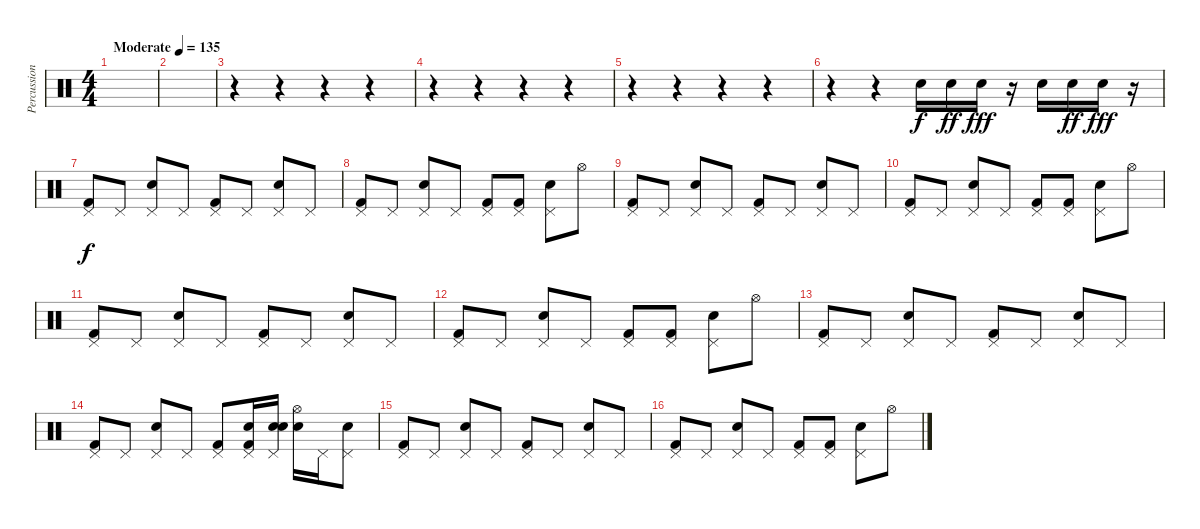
\track ("Percussion" "Percussion") {instrument percussion}
\staff {score}
\articulation defaults
\ts (4 4)
\tempo (135 "Moderate")
\clef neutral
\ks c
|
|
r.4 r.4 r.4 r.4 |
r.4 r.4 r.4 r.4 |
r.4 r.4 r.4 r.4 |
r.4 r.4 "Electric Snare (hit)".16 "Electric Snare (hit)".16{dy ff} "Electric Snare (hit)".16{dy fff} r.16 "Electric Snare (hit)".16 "Electric Snare (hit)".16{dy ff} "Electric Snare (hit)".16{dy fff} r.16 |
("Pedal Hi-Hat (hit)" "Kick (hit) 2").8{dy f} "Pedal Hi-Hat (hit)".8 ("Pedal Hi-Hat (hit)" "Electric Snare (hit)").8 "Pedal Hi-Hat (hit)".8 ("Pedal Hi-Hat (hit)" "Kick (hit) 2").8 "Pedal Hi-Hat (hit)".8 ("Pedal Hi-Hat (hit)" "Electric Snare (hit)").8 "Pedal Hi-Hat (hit)".8 |
("Pedal Hi-Hat (hit)" "Kick (hit) 2").8 "Pedal Hi-Hat (hit)".8 ("Pedal Hi-Hat (hit)" "Electric Snare (hit)").8 "Pedal Hi-Hat (hit)".8 ("Pedal Hi-Hat (hit)" "Kick (hit) 2").8 ("Pedal Hi-Hat (hit)" "Kick (hit) 2").8 ("Pedal Hi-Hat (hit)" "Electric Snare (hit)").8 "Hi-Hat (open)".8 |
("Pedal Hi-Hat (hit)" "Kick (hit) 2").8 "Pedal Hi-Hat (hit)".8 ("Pedal Hi-Hat (hit)" "Electric Snare (hit)").8 "Pedal Hi-Hat (hit)".8 ("Pedal Hi-Hat (hit)" "Kick (hit) 2").8 "Pedal Hi-Hat (hit)".8 ("Pedal Hi-Hat (hit)" "Electric Snare (hit)").8 "Pedal Hi-Hat (hit)".8 |
("Pedal Hi-Hat (hit)" "Kick (hit) 2").8 "Pedal Hi-Hat (hit)".8 ("Pedal Hi-Hat (hit)" "Electric Snare (hit)").8 "Pedal Hi-Hat (hit)".8 ("Pedal Hi-Hat (hit)" "Kick (hit) 2").8 ("Pedal Hi-Hat (hit)" "Kick (hit) 2").8 ("Pedal Hi-Hat (hit)" "Electric Snare (hit)").8 "Hi-Hat (open)".8 |
("Pedal Hi-Hat (hit)" "Kick (hit) 2").8 "Pedal Hi-Hat (hit)".8 ("Pedal Hi-Hat (hit)" "Electric Snare (hit)").8 "Pedal Hi-Hat (hit)".8 ("Pedal Hi-Hat (hit)" "Kick (hit) 2").8 "Pedal Hi-Hat (hit)".8 ("Pedal Hi-Hat (hit)" "Electric Snare (hit)").8 "Pedal Hi-Hat (hit)".8 |
("Pedal Hi-Hat (hit)" "Kick (hit) 2").8 "Pedal Hi-Hat (hit)".8 ("Pedal Hi-Hat (hit)" "Electric Snare (hit)").8 "Pedal Hi-Hat (hit)".8 ("Pedal Hi-Hat (hit)" "Kick (hit) 2").8 ("Pedal Hi-Hat (hit)" "Kick (hit) 2").8 ("Pedal Hi-Hat (hit)" "Electric Snare (hit)").8 "Hi-Hat (open)".8 |
("Pedal Hi-Hat (hit)" "Kick (hit) 2").8 "Pedal Hi-Hat (hit)".8 ("Pedal Hi-Hat (hit)" "Electric Snare (hit)").8 "Pedal Hi-Hat (hit)".8 ("Pedal Hi-Hat (hit)" "Kick (hit) 2").8 "Pedal Hi-Hat (hit)".8 ("Pedal Hi-Hat (hit)" "Electric Snare (hit)").8 "Pedal Hi-Hat (hit)".8 |
("Pedal Hi-Hat (hit)" "Kick (hit) 2").8 "Pedal Hi-Hat (hit)".8 ("Pedal Hi-Hat (hit)" "Electric Snare (hit)").8 "Pedal Hi-Hat (hit)".8 ("Pedal Hi-Hat (hit)" "Kick (hit) 2").8 ("Pedal Hi-Hat (hit)" "Electric Snare (hit)" "Kick (hit) 2").16 ("Pedal Hi-Hat (hit)" "Electric Snare (hit)" "Electric Snare (hit)").16 ("Hi-Hat (open)" "Electric Snare (hit)").16 "Pedal Hi-Hat (hit)".16 ("Pedal Hi-Hat (hit)" "Electric Snare (hit)").8 |
("Pedal Hi-Hat (hit)" "Kick (hit) 2").8 "Pedal Hi-Hat (hit)".8 ("Pedal Hi-Hat (hit)" "Electric Snare (hit)").8 "Pedal Hi-Hat (hit)".8 ("Pedal Hi-Hat (hit)" "Kick (hit) 2").8 "Pedal Hi-Hat (hit)".8 ("Pedal Hi-Hat (hit)" "Electric Snare (hit)").8 "Pedal Hi-Hat (hit)".8 |
("Pedal Hi-Hat (hit)" "Kick (hit) 2").8 "Pedal Hi-Hat (hit)".8 ("Pedal Hi-Hat (hit)" "Electric Snare (hit)").8 "Pedal Hi-Hat (hit)".8 ("Pedal Hi-Hat (hit)" "Kick (hit) 2").8 ("Pedal Hi-Hat (hit)" "Kick (hit) 2").8 ("Pedal Hi-Hat (hit)" "Electric Snare (hit)").8 "Hi-Hat (open)".8
